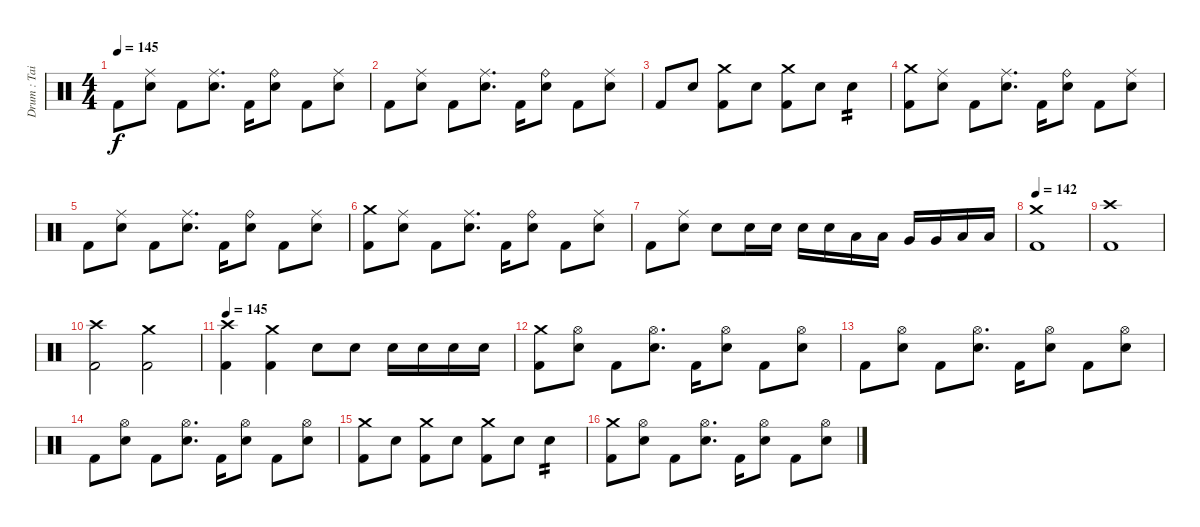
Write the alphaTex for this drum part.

\track ("Drum : Tainaka Ritsu" "Drum : Tai") {instrument percussion}
\staff {score}
\articulation defaults
\ts (4 4)
\tempo 145
\clef neutral
\ks c "Kick (hit) 2".8{dy f}
("Ride (middle)" "Electric Snare (hit)").8 "Kick (hit) 2".8 ("Ride (middle)" "Electric Snare (hit)").8{d} "Kick (hit) 2".16 ("Ride (bell)" "Electric Snare (hit)").8 "Kick (hit) 2".8 ("Ride (middle)" "Electric Snare (hit)").8 |
"Kick (hit) 2".8 ("Ride (middle)" "Electric Snare (hit)").8 "Kick (hit) 2".8 ("Ride (middle)" "Electric Snare (hit)").8{d} "Kick (hit) 2".16 ("Ride (bell)" "Electric Snare (hit)").8 "Kick (hit) 2".8 ("Ride (middle)" "Electric Snare (hit)").8 |
"Kick (hit) 2".8 "Electric Snare (hit)".8 ("Crash medium (hit)" "Kick (hit) 2").8 "Electric Snare (hit)".8 ("Crash medium (hit)" "Kick (hit) 2").8 "Electric Snare (hit)".8 "Electric Snare (hit)".4{tp 2} |
("Crash medium (hit)" "Kick (hit) 2").8 ("Ride (middle)" "Electric Snare (hit)").8 "Kick (hit) 2".8 ("Ride (middle)" "Electric Snare (hit)").8{d} "Kick (hit) 2".16 ("Ride (bell)" "Electric Snare (hit)").8 "Kick (hit) 2".8 ("Ride (middle)" "Electric Snare (hit)").8 |
"Kick (hit) 2".8 ("Ride (middle)" "Electric Snare (hit)").8 "Kick (hit) 2".8 ("Ride (middle)" "Electric Snare (hit)").8{d} "Kick (hit) 2".16 ("Ride (bell)" "Electric Snare (hit)").8 "Kick (hit) 2".8 ("Ride (middle)" "Electric Snare (hit)").8 |
("Crash medium (hit)" "Kick (hit) 2").8 ("Ride (middle)" "Electric Snare (hit)").8 "Kick (hit) 2".8 ("Ride (middle)" "Electric Snare (hit)").8{d} "Kick (hit) 2".16 ("Ride (bell)" "Electric Snare (hit)").8 "Kick (hit) 2".8 ("Ride (middle)" "Electric Snare (hit)").8 |
"Kick (hit) 2".8 ("Ride (middle)" "Electric Snare (hit)").8 "Electric Snare (hit)".8 "Electric Snare (hit)".16 "Electric Snare (hit)".16 "Electric Snare (hit)".16 "Electric Snare (hit)".16 "Low Tom (hit)".16 "Low Tom (hit)".16 "Very Low Tom (hit)".16 "Very Low Tom (hit)".16 "Low Floor Tom (hit)".16 "Low Floor Tom (hit)".16 |
\tempo 142
("Crash medium (hit)" "Kick (hit) 2").1 |
("Crash high (hit)" "Kick (hit) 2").1 |
("Crash high (hit)" "Kick (hit) 2").2 ("Crash medium (hit)" "Kick (hit) 2").2 |
\tempo 145
("Crash high (hit)" "Kick (hit) 2").4 ("Crash medium (hit)" "Kick (hit) 2").4 "Electric Snare (hit)".8 "Electric Snare (hit)".8 "Electric Snare (hit)".16 "Electric Snare (hit)".16 "Electric Snare (hit)".16 "Electric Snare (hit)".16 |
("Crash medium (hit)" "Kick (hit) 2").8 ("Hi-Hat (open)" "Electric Snare (hit)").8 "Kick (hit) 2".8 ("Hi-Hat (open)" "Electric Snare (hit)").8{d} "Kick (hit) 2".16 ("Hi-Hat (open)" "Electric Snare (hit)").8 "Kick (hit) 2".8 ("Hi-Hat (open)" "Electric Snare (hit)").8 |
"Kick (hit) 2".8 ("Hi-Hat (open)" "Electric Snare (hit)").8 "Kick (hit) 2".8 ("Hi-Hat (open)" "Electric Snare (hit)").8{d} "Kick (hit) 2".16 ("Hi-Hat (open)" "Electric Snare (hit)").8 "Kick (hit) 2".8 ("Hi-Hat (open)" "Electric Snare (hit)").8 |
"Kick (hit) 2".8 ("Hi-Hat (open)" "Electric Snare (hit)").8 "Kick (hit) 2".8 ("Hi-Hat (open)" "Electric Snare (hit)").8{d} "Kick (hit) 2".16 ("Hi-Hat (open)" "Electric Snare (hit)").8 "Kick (hit) 2".8 ("Hi-Hat (open)" "Electric Snare (hit)").8 |
("Crash medium (hit)" "Kick (hit) 2").8 "Electric Snare (hit)".8 ("Crash medium (hit)" "Kick (hit) 2").8 "Electric Snare (hit)".8 ("Crash medium (hit)" "Kick (hit) 2").8 "Electric Snare (hit)".8 "Electric Snare (hit)".4{tp 2} |
("Crash medium (hit)" "Kick (hit) 2").8 ("Hi-Hat (open)" "Electric Snare (hit)").8 "Kick (hit) 2".8 ("Hi-Hat (open)" "Electric Snare (hit)").8{d} "Kick (hit) 2".16 ("Hi-Hat (open)" "Electric Snare (hit)").8 "Kick (hit) 2".8 ("Hi-Hat (open)" "Electric Snare (hit)").8
